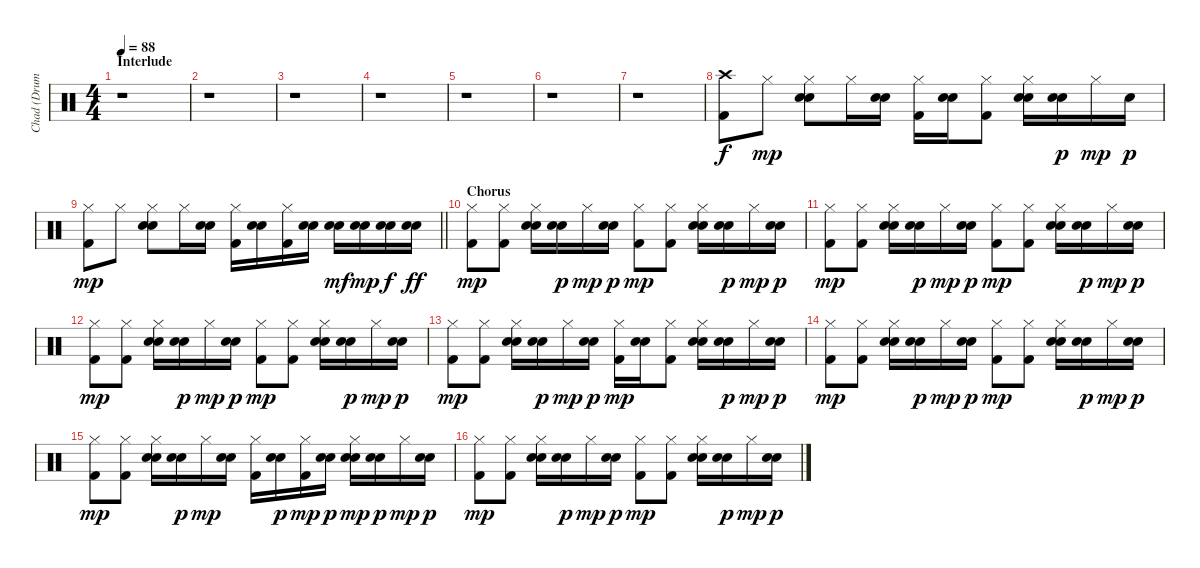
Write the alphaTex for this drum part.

\track ("Chad (Drums)" "Chad (Drum") {instrument percussion}
\staff {score}
\articulation defaults
\ts (4 4)
\section ("" "Interlude")
\tempo 88
\clef neutral
\ks c
r.1{dy f} |
r.1 |
r.1 |
r.1 |
r.1 |
r.1 |
r.1 |
("Crash high (hit)" "Kick (hit) 2").8 "Hi-Hat (closed)".8{dy mp} ("Hi-Hat (closed)" "Electric Snare (hit)" "Snare (hit) 2").8 "Hi-Hat (closed)".16 ("Electric Snare (hit)" "Snare (hit) 2").16 ("Hi-Hat (closed)" "Kick (hit) 2").16 ("Electric Snare (hit)" "Snare (hit) 2").16 ("Hi-Hat (closed)" "Kick (hit) 2").8 ("Hi-Hat (closed)" "Electric Snare (hit)" "Snare (hit) 2").16 ("Electric Snare (hit)" "Snare (hit) 2").16{dy p} "Hi-Hat (closed)".16{dy mp} "Snare (hit) 2".16{dy p} |
\barLineRight lightlight
("Hi-Hat (closed)" "Kick (hit) 2").8{dy mp} "Hi-Hat (closed)".8 ("Hi-Hat (closed)" "Electric Snare (hit)" "Snare (hit) 2").8 "Hi-Hat (closed)".16 ("Electric Snare (hit)" "Snare (hit) 2").16 ("Hi-Hat (closed)" "Kick (hit) 2").16 ("Electric Snare (hit)" "Snare (hit) 2").16 ("Hi-Hat (closed)" "Kick (hit) 2").16 ("Electric Snare (hit)" "Snare (hit) 2").16 ("Electric Snare (hit)" "Snare (hit) 2").16{dy mf} ("Electric Snare (hit)" "Snare (hit) 2").16{dy mp} ("Electric Snare (hit)" "Snare (hit) 2").16{dy f} ("Electric Snare (hit)" "Snare (hit) 2").16{dy ff} |
\section ("" "Chorus")
("Hi-Hat (closed)" "Kick (hit) 2").8{dy mp} ("Hi-Hat (closed)" "Kick (hit) 2").8 ("Hi-Hat (closed)" "Electric Snare (hit)" "Snare (hit) 2").16 ("Electric Snare (hit)" "Snare (hit) 2").16{dy p} "Hi-Hat (closed)".16{dy mp} ("Electric Snare (hit)" "Snare (hit) 2").16{dy p} ("Hi-Hat (closed)" "Kick (hit) 2").8{dy mp} ("Hi-Hat (closed)" "Kick (hit) 2").8 ("Hi-Hat (closed)" "Electric Snare (hit)" "Snare (hit) 2").16 ("Electric Snare (hit)" "Snare (hit) 2").16{dy p} "Hi-Hat (closed)".16{dy mp} ("Electric Snare (hit)" "Snare (hit) 2").16{dy p} |
("Hi-Hat (closed)" "Kick (hit) 2").8{dy mp} ("Hi-Hat (closed)" "Kick (hit) 2").8 ("Hi-Hat (closed)" "Electric Snare (hit)" "Snare (hit) 2").16 ("Electric Snare (hit)" "Snare (hit) 2").16{dy p} "Hi-Hat (closed)".16{dy mp} ("Electric Snare (hit)" "Snare (hit) 2").16{dy p} ("Hi-Hat (closed)" "Kick (hit) 2").8{dy mp} ("Hi-Hat (closed)" "Kick (hit) 2").8 ("Hi-Hat (closed)" "Electric Snare (hit)" "Snare (hit) 2").16 ("Electric Snare (hit)" "Snare (hit) 2").16{dy p} "Hi-Hat (closed)".16{dy mp} ("Electric Snare (hit)" "Snare (hit) 2").16{dy p} |
("Hi-Hat (closed)" "Kick (hit) 2").8{dy mp} ("Hi-Hat (closed)" "Kick (hit) 2").8 ("Hi-Hat (closed)" "Electric Snare (hit)" "Snare (hit) 2").16 ("Electric Snare (hit)" "Snare (hit) 2").16{dy p} "Hi-Hat (closed)".16{dy mp} ("Electric Snare (hit)" "Snare (hit) 2").16{dy p} ("Hi-Hat (closed)" "Kick (hit) 2").8{dy mp} ("Hi-Hat (closed)" "Kick (hit) 2").8 ("Hi-Hat (closed)" "Electric Snare (hit)" "Snare (hit) 2").16 ("Electric Snare (hit)" "Snare (hit) 2").16{dy p} "Hi-Hat (closed)".16{dy mp} ("Electric Snare (hit)" "Snare (hit) 2").16{dy p} |
("Hi-Hat (closed)" "Kick (hit) 2").8{dy mp} ("Hi-Hat (closed)" "Kick (hit) 2").8 ("Hi-Hat (closed)" "Electric Snare (hit)" "Snare (hit) 2").16 ("Electric Snare (hit)" "Snare (hit) 2").16{dy p} "Hi-Hat (closed)".16{dy mp} ("Electric Snare (hit)" "Snare (hit) 2").16{dy p} ("Hi-Hat (closed)" "Kick (hit) 2").16{dy mp} ("Electric Snare (hit)" "Snare (hit) 2").16 ("Hi-Hat (closed)" "Kick (hit) 2").8 ("Hi-Hat (closed)" "Electric Snare (hit)" "Snare (hit) 2").16 ("Electric Snare (hit)" "Snare (hit) 2").16{dy p} "Hi-Hat (closed)".16{dy mp} ("Electric Snare (hit)" "Snare (hit) 2").16{dy p} |
("Hi-Hat (closed)" "Kick (hit) 2").8{dy mp} ("Hi-Hat (closed)" "Kick (hit) 2").8 ("Hi-Hat (closed)" "Electric Snare (hit)" "Snare (hit) 2").16 ("Electric Snare (hit)" "Snare (hit) 2").16{dy p} "Hi-Hat (closed)".16{dy mp} ("Electric Snare (hit)" "Snare (hit) 2").16{dy p} ("Hi-Hat (closed)" "Kick (hit) 2").8{dy mp} ("Hi-Hat (closed)" "Kick (hit) 2").8 ("Hi-Hat (closed)" "Electric Snare (hit)" "Snare (hit) 2").16 ("Electric Snare (hit)" "Snare (hit) 2").16{dy p} "Hi-Hat (closed)".16{dy mp} ("Electric Snare (hit)" "Snare (hit) 2").16{dy p} |
("Hi-Hat (closed)" "Kick (hit) 2").8{dy mp} ("Hi-Hat (closed)" "Kick (hit) 2").8 ("Hi-Hat (closed)" "Electric Snare (hit)" "Snare (hit) 2").16 ("Electric Snare (hit)" "Snare (hit) 2").16{dy p} "Hi-Hat (closed)".16{dy mp} ("Electric Snare (hit)" "Snare (hit) 2").16 ("Hi-Hat (closed)" "Kick (hit) 2").16 ("Electric Snare (hit)" "Snare (hit) 2").16{dy p} ("Hi-Hat (closed)" "Kick (hit) 2").16{dy mp} ("Electric Snare (hit)" "Snare (hit) 2").16{dy p} ("Hi-Hat (closed)" "Electric Snare (hit)" "Snare (hit) 2").16{dy mp} ("Electric Snare (hit)" "Snare (hit) 2").16{dy p} "Hi-Hat (closed)".16{dy mp} ("Electric Snare (hit)" "Snare (hit) 2").16{dy p} |
("Hi-Hat (closed)" "Kick (hit) 2").8{dy mp} ("Hi-Hat (closed)" "Kick (hit) 2").8 ("Hi-Hat (closed)" "Electric Snare (hit)" "Snare (hit) 2").16 ("Electric Snare (hit)" "Snare (hit) 2").16{dy p} "Hi-Hat (closed)".16{dy mp} ("Electric Snare (hit)" "Snare (hit) 2").16{dy p} ("Hi-Hat (closed)" "Kick (hit) 2").8{dy mp} ("Hi-Hat (closed)" "Kick (hit) 2").8 ("Hi-Hat (closed)" "Electric Snare (hit)" "Snare (hit) 2").16 ("Electric Snare (hit)" "Snare (hit) 2").16{dy p} "Hi-Hat (closed)".16{dy mp} ("Electric Snare (hit)" "Snare (hit) 2").16{dy p}
